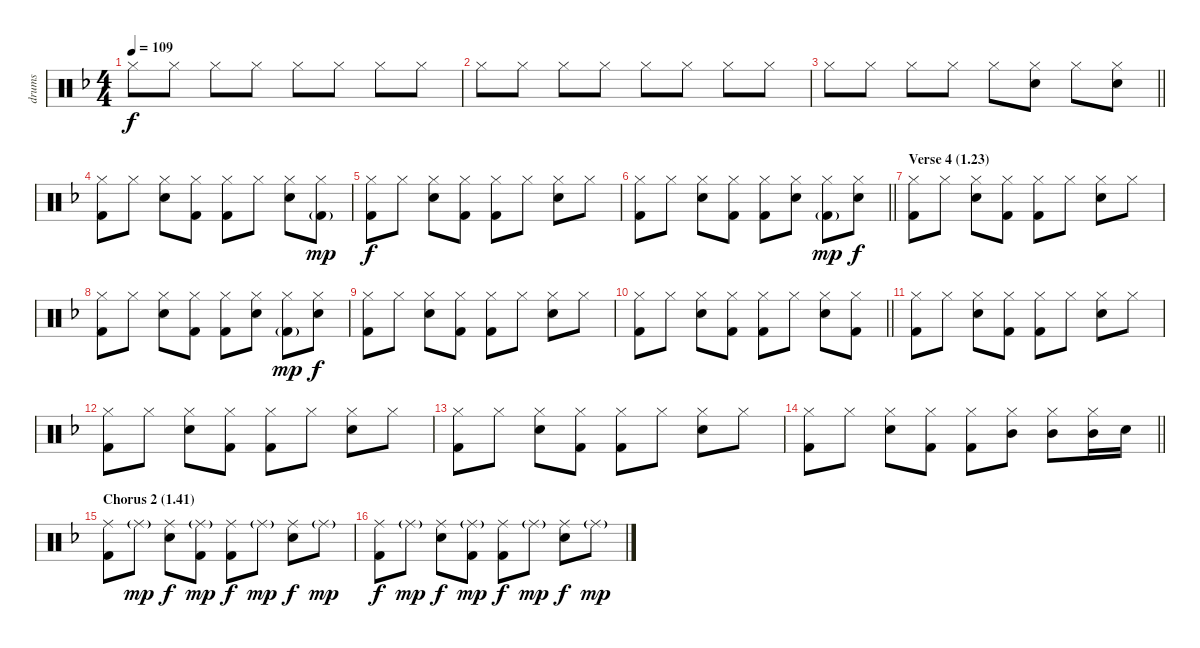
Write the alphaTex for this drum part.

\track ("drums" "drums") {instrument percussion}
\staff {score}
\articulation defaults
\ts (4 4)
\tempo 109
\clef neutral
\ks f "Hi-Hat (closed)".8{dy f} "Hi-Hat (closed)".8 "Hi-Hat (closed)".8 "Hi-Hat (closed)".8 "Hi-Hat (closed)".8 "Hi-Hat (closed)".8 "Hi-Hat (closed)".8 "Hi-Hat (closed)".8
|
"Hi-Hat (closed)".8 "Hi-Hat (closed)".8 "Hi-Hat (closed)".8 "Hi-Hat (closed)".8 "Hi-Hat (closed)".8 "Hi-Hat (closed)".8 "Hi-Hat (closed)".8 "Hi-Hat (closed)".8 |
\barLineRight lightlight "Hi-Hat (closed)".8 "Hi-Hat (closed)".8 "Hi-Hat (closed)".8 "Hi-Hat (closed)".8 "Hi-Hat (closed)".8
("Hi-Hat (closed)" "Electric Snare (hit)").8 "Hi-Hat (closed)".8 ("Hi-Hat (closed)" "Electric Snare (hit)").8 |
("Hi-Hat (closed)" "Kick (hit) 2").8 "Hi-Hat (closed)".8 ("Hi-Hat (closed)" "Electric Snare (hit)").8 ("Hi-Hat (closed)" "Kick (hit) 2").8 ("Hi-Hat (closed)" "Kick (hit) 2").8 "Hi-Hat (closed)".8 ("Hi-Hat (closed)" "Electric Snare (hit)").8 ("Hi-Hat (closed)" "Kick (hit) 2"{g}).8{dy mp} |
("Hi-Hat (closed)" "Kick (hit) 2").8{dy f} "Hi-Hat (closed)".8 ("Hi-Hat (closed)" "Electric Snare (hit)").8 ("Hi-Hat (closed)" "Kick (hit) 2").8 ("Hi-Hat (closed)" "Kick (hit) 2").8 "Hi-Hat (closed)".8 ("Hi-Hat (closed)" "Electric Snare (hit)").8 "Hi-Hat (closed)".8 |
\barLineRight lightlight
("Hi-Hat (closed)" "Kick (hit) 2").8 "Hi-Hat (closed)".8 ("Hi-Hat (closed)" "Electric Snare (hit)").8 ("Hi-Hat (closed)" "Kick (hit) 2").8 ("Hi-Hat (closed)" "Kick (hit) 2").8 ("Hi-Hat (closed)" "Electric Snare (hit)").8 ("Hi-Hat (closed)" "Kick (hit) 2"{g}).8{dy mp} ("Hi-Hat (closed)" "Electric Snare (hit)").8{dy f} |
\section ("" "Verse 4 (1.23)")
("Hi-Hat (closed)" "Kick (hit) 2").8 "Hi-Hat (closed)".8 ("Hi-Hat (closed)" "Electric Snare (hit)").8 ("Hi-Hat (closed)" "Kick (hit) 2").8 ("Hi-Hat (closed)" "Kick (hit) 2").8 "Hi-Hat (closed)".8 ("Hi-Hat (closed)" "Electric Snare (hit)").8 "Hi-Hat (closed)".8 |
("Hi-Hat (closed)" "Kick (hit) 2").8 "Hi-Hat (closed)".8 ("Hi-Hat (closed)" "Electric Snare (hit)").8 ("Hi-Hat (closed)" "Kick (hit) 2").8 ("Hi-Hat (closed)" "Kick (hit) 2").8 ("Hi-Hat (closed)" "Electric Snare (hit)").8 ("Hi-Hat (closed)" "Kick (hit) 2"{g}).8{dy mp} ("Hi-Hat (closed)" "Electric Snare (hit)").8{dy f} |
("Hi-Hat (closed)" "Kick (hit) 2").8 "Hi-Hat (closed)".8 ("Hi-Hat (closed)" "Electric Snare (hit)").8 ("Hi-Hat (closed)" "Kick (hit) 2").8 ("Hi-Hat (closed)" "Kick (hit) 2").8 "Hi-Hat (closed)".8 ("Hi-Hat (closed)" "Electric Snare (hit)").8 "Hi-Hat (closed)".8 |
\barLineRight lightlight
("Hi-Hat (closed)" "Kick (hit) 2").8 "Hi-Hat (closed)".8 ("Hi-Hat (closed)" "Electric Snare (hit)").8 ("Hi-Hat (closed)" "Kick (hit) 2").8 ("Hi-Hat (closed)" "Kick (hit) 2").8 "Hi-Hat (closed)".8 ("Hi-Hat (closed)" "Electric Snare (hit)").8 ("Hi-Hat (closed)" "Kick (hit) 2").8 |
("Hi-Hat (closed)" "Kick (hit) 2").8 "Hi-Hat (closed)".8 ("Hi-Hat (closed)" "Electric Snare (hit)").8 ("Hi-Hat (closed)" "Kick (hit) 2").8 ("Hi-Hat (closed)" "Kick (hit) 2").8 "Hi-Hat (closed)".8 ("Hi-Hat (closed)" "Electric Snare (hit)").8 "Hi-Hat (closed)".8 |
("Hi-Hat (closed)" "Kick (hit) 2").8 "Hi-Hat (closed)".8 ("Hi-Hat (closed)" "Electric Snare (hit)").8 ("Hi-Hat (closed)" "Kick (hit) 2").8 ("Hi-Hat (closed)" "Kick (hit) 2").8 "Hi-Hat (closed)".8 ("Hi-Hat (closed)" "Electric Snare (hit)").8 "Hi-Hat (closed)".8 |
("Hi-Hat (closed)" "Kick (hit) 2").8 "Hi-Hat (closed)".8 ("Hi-Hat (closed)" "Electric Snare (hit)").8 ("Hi-Hat (closed)" "Kick (hit) 2").8 ("Hi-Hat (closed)" "Kick (hit) 2").8 "Hi-Hat (closed)".8 ("Hi-Hat (closed)" "Electric Snare (hit)").8 "Hi-Hat (closed)".8 |
\barLineRight lightlight
("Hi-Hat (closed)" "Kick (hit) 2").8 "Hi-Hat (closed)".8 ("Hi-Hat (closed)" "Electric Snare (hit)").8 ("Hi-Hat (closed)" "Kick (hit) 2").8 ("Hi-Hat (closed)" "Kick (hit) 2").8 ("Hi-Hat (closed)" "Mid Tom (hit)").8 ("Hi-Hat (closed)" "Mid Tom (hit)").8 ("Hi-Hat (closed)" "Mid Tom (hit)").16 "Electric Snare (hit)".16 |
\section ("" "Chorus 2 (1.41)")
("Ride (middle)" "Kick (hit) 2").8 "Ride (middle)"{g}.8{dy mp} ("Ride (middle)" "Electric Snare (hit)").8{dy f} ("Ride (middle)"{g} "Kick (hit) 2").8{dy mp} ("Ride (middle)" "Kick (hit) 2").8{dy f} "Ride (middle)"{g}.8{dy mp} ("Ride (middle)" "Electric Snare (hit)").8{dy f} "Ride (middle)"{g}.8{dy mp} |
("Ride (middle)" "Kick (hit) 2").8{dy f} "Ride (middle)"{g}.8{dy mp} ("Ride (middle)" "Electric Snare (hit)").8{dy f} ("Ride (middle)"{g} "Kick (hit) 2").8{dy mp} ("Ride (middle)" "Kick (hit) 2").8{dy f} "Ride (middle)"{g}.8{dy mp} ("Ride (middle)" "Electric Snare (hit)").8{dy f} "Ride (middle)"{g}.8{dy mp}
